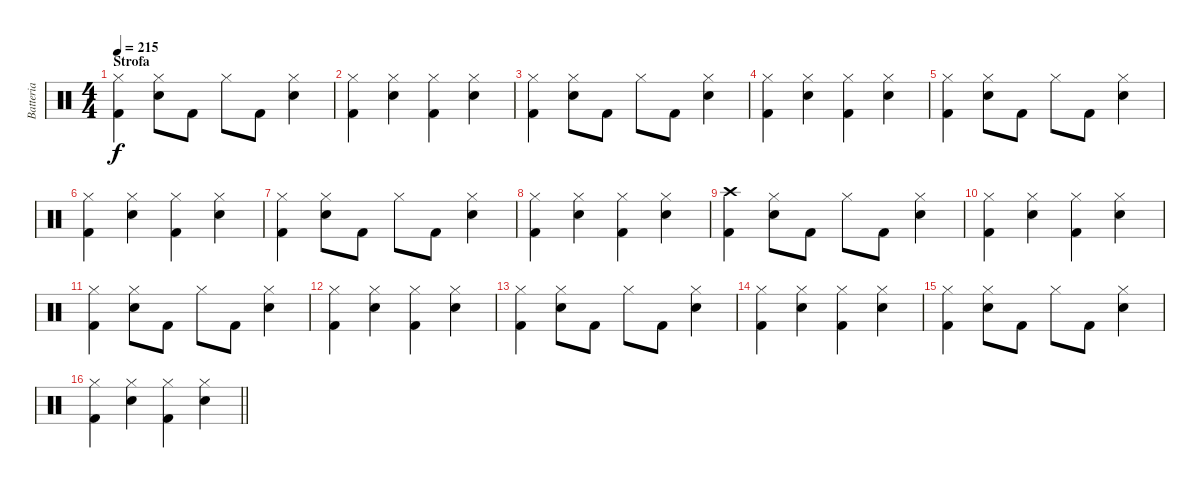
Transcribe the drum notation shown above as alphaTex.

\track ("Batteria" "Batteria") {instrument percussion}
\staff {score}
\articulation defaults
\ts (4 4)
\section ("" "Strofa")
\tempo 215
\clef neutral
\ks c
("Hi-Hat (closed)" "Kick (hit) 2").4{dy f} ("Hi-Hat (closed)" "Electric Snare (hit)").8 "Kick (hit) 2".8 "Hi-Hat (closed)".8 "Kick (hit) 2".8 ("Hi-Hat (closed)" "Electric Snare (hit)").4 |
("Hi-Hat (closed)" "Kick (hit) 2").4 ("Hi-Hat (closed)" "Electric Snare (hit)").4 ("Hi-Hat (closed)" "Kick (hit) 2").4 ("Hi-Hat (closed)" "Electric Snare (hit)").4 |
("Hi-Hat (closed)" "Kick (hit) 2").4 ("Hi-Hat (closed)" "Electric Snare (hit)").8 "Kick (hit) 2".8 "Hi-Hat (closed)".8 "Kick (hit) 2".8 ("Hi-Hat (closed)" "Electric Snare (hit)").4 |
("Hi-Hat (closed)" "Kick (hit) 2").4 ("Hi-Hat (closed)" "Electric Snare (hit)").4 ("Hi-Hat (closed)" "Kick (hit) 2").4 ("Hi-Hat (closed)" "Electric Snare (hit)").4 |
("Hi-Hat (closed)" "Kick (hit) 2").4 ("Hi-Hat (closed)" "Electric Snare (hit)").8 "Kick (hit) 2".8 "Hi-Hat (closed)".8 "Kick (hit) 2".8 ("Hi-Hat (closed)" "Electric Snare (hit)").4 |
("Hi-Hat (closed)" "Kick (hit) 2").4 ("Hi-Hat (closed)" "Electric Snare (hit)").4 ("Hi-Hat (closed)" "Kick (hit) 2").4 ("Hi-Hat (closed)" "Electric Snare (hit)").4 |
("Hi-Hat (closed)" "Kick (hit) 2").4 ("Hi-Hat (closed)" "Electric Snare (hit)").8 "Kick (hit) 2".8 "Hi-Hat (closed)".8 "Kick (hit) 2".8 ("Hi-Hat (closed)" "Electric Snare (hit)").4 |
("Hi-Hat (closed)" "Kick (hit) 2").4 ("Hi-Hat (closed)" "Electric Snare (hit)").4 ("Hi-Hat (closed)" "Kick (hit) 2").4 ("Hi-Hat (closed)" "Electric Snare (hit)").4 |
("Crash high (hit)" "Kick (hit) 2").4 ("Hi-Hat (closed)" "Electric Snare (hit)").8 "Kick (hit) 2".8 "Hi-Hat (closed)".8 "Kick (hit) 2".8 ("Hi-Hat (closed)" "Electric Snare (hit)").4 |
("Hi-Hat (closed)" "Kick (hit) 2").4 ("Hi-Hat (closed)" "Electric Snare (hit)").4 ("Hi-Hat (closed)" "Kick (hit) 2").4 ("Hi-Hat (closed)" "Electric Snare (hit)").4 |
("Hi-Hat (closed)" "Kick (hit) 2").4 ("Hi-Hat (closed)" "Electric Snare (hit)").8 "Kick (hit) 2".8 "Hi-Hat (closed)".8 "Kick (hit) 2".8 ("Hi-Hat (closed)" "Electric Snare (hit)").4 |
("Hi-Hat (closed)" "Kick (hit) 2").4 ("Hi-Hat (closed)" "Electric Snare (hit)").4 ("Hi-Hat (closed)" "Kick (hit) 2").4 ("Hi-Hat (closed)" "Electric Snare (hit)").4 |
("Hi-Hat (closed)" "Kick (hit) 2").4 ("Hi-Hat (closed)" "Electric Snare (hit)").8 "Kick (hit) 2".8 "Hi-Hat (closed)".8 "Kick (hit) 2".8 ("Hi-Hat (closed)" "Electric Snare (hit)").4 |
("Hi-Hat (closed)" "Kick (hit) 2").4 ("Hi-Hat (closed)" "Electric Snare (hit)").4 ("Hi-Hat (closed)" "Kick (hit) 2").4 ("Hi-Hat (closed)" "Electric Snare (hit)").4 |
("Hi-Hat (closed)" "Kick (hit) 2").4 ("Hi-Hat (closed)" "Electric Snare (hit)").8 "Kick (hit) 2".8 "Hi-Hat (closed)".8 "Kick (hit) 2".8 ("Hi-Hat (closed)" "Electric Snare (hit)").4 |
\barLineRight lightlight
("Hi-Hat (closed)" "Kick (hit) 2").4 ("Hi-Hat (closed)" "Electric Snare (hit)").4 ("Hi-Hat (closed)" "Kick (hit) 2").4 ("Hi-Hat (closed)" "Electric Snare (hit)").4
